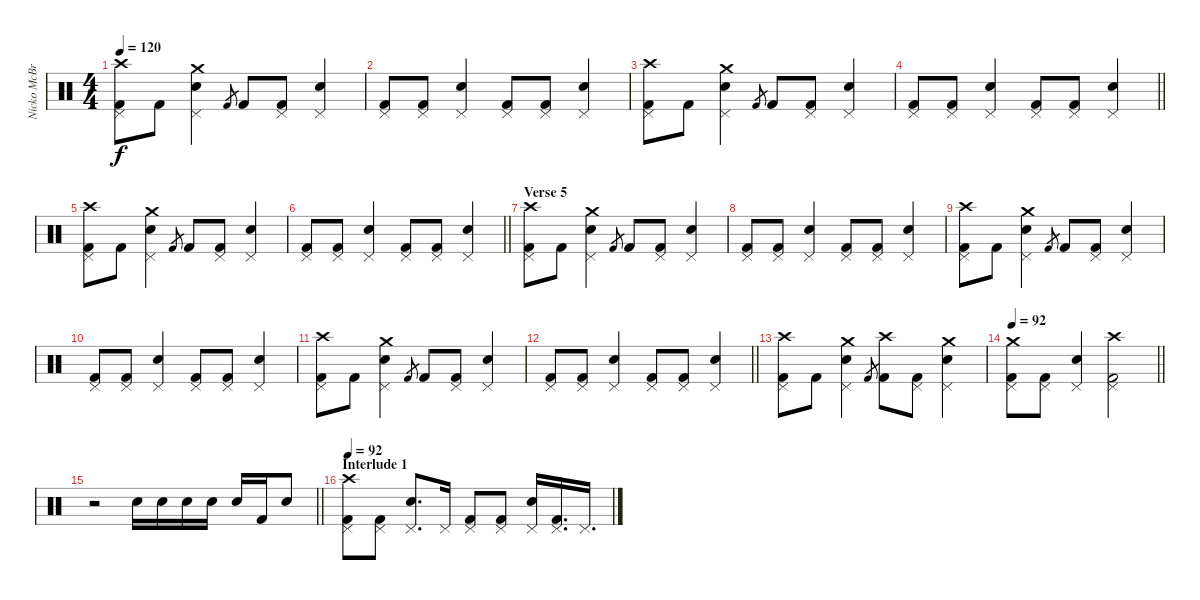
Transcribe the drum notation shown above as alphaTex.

\track ("Nicko McBrain" "Nicko McBr") {instrument percussion}
\staff {score}
\articulation defaults
\ts (4 4)
\tempo 120
\clef neutral
\ks c
("Crash high (hit)" "Pedal Hi-Hat (hit)" "Kick (hit) 2").8{dy f} "Kick (hit) 2".8 ("Pedal Hi-Hat (hit)" "Electric Snare (hit)" "Crash medium (hit)").4 "Kick (hit) 2".8{gr} "Kick (hit) 2".8 ("Pedal Hi-Hat (hit)" "Kick (hit) 2").8 ("Pedal Hi-Hat (hit)" "Electric Snare (hit)").4 |
("Pedal Hi-Hat (hit)" "Kick (hit) 2").8 ("Pedal Hi-Hat (hit)" "Kick (hit) 2").8 ("Pedal Hi-Hat (hit)" "Electric Snare (hit)").4 ("Pedal Hi-Hat (hit)" "Kick (hit) 2").8 ("Pedal Hi-Hat (hit)" "Kick (hit) 2").8 ("Pedal Hi-Hat (hit)" "Electric Snare (hit)").4 |
("Crash high (hit)" "Pedal Hi-Hat (hit)" "Kick (hit) 2").8 "Kick (hit) 2".8 ("Pedal Hi-Hat (hit)" "Electric Snare (hit)" "Crash medium (hit)").4 "Kick (hit) 2".8{gr} "Kick (hit) 2".8 ("Pedal Hi-Hat (hit)" "Kick (hit) 2").8 ("Pedal Hi-Hat (hit)" "Electric Snare (hit)").4 |
\barLineRight lightlight
("Pedal Hi-Hat (hit)" "Kick (hit) 2").8 ("Pedal Hi-Hat (hit)" "Kick (hit) 2").8 ("Pedal Hi-Hat (hit)" "Electric Snare (hit)").4 ("Pedal Hi-Hat (hit)" "Kick (hit) 2").8 ("Pedal Hi-Hat (hit)" "Kick (hit) 2").8 ("Pedal Hi-Hat (hit)" "Electric Snare (hit)").4 |
("Crash high (hit)" "Pedal Hi-Hat (hit)" "Kick (hit) 2").8 "Kick (hit) 2".8 ("Pedal Hi-Hat (hit)" "Electric Snare (hit)" "Crash medium (hit)").4 "Kick (hit) 2".8{gr} "Kick (hit) 2".8 ("Pedal Hi-Hat (hit)" "Kick (hit) 2").8 ("Pedal Hi-Hat (hit)" "Electric Snare (hit)").4 |
\barLineRight lightlight
("Pedal Hi-Hat (hit)" "Kick (hit) 2").8 ("Pedal Hi-Hat (hit)" "Kick (hit) 2").8 ("Pedal Hi-Hat (hit)" "Electric Snare (hit)").4 ("Pedal Hi-Hat (hit)" "Kick (hit) 2").8 ("Pedal Hi-Hat (hit)" "Kick (hit) 2").8 ("Pedal Hi-Hat (hit)" "Electric Snare (hit)").4 |
\section ("" "Verse 5")
("Crash high (hit)" "Pedal Hi-Hat (hit)" "Kick (hit) 2").8 "Kick (hit) 2".8 ("Pedal Hi-Hat (hit)" "Electric Snare (hit)" "Crash medium (hit)").4 "Kick (hit) 2".8{gr} "Kick (hit) 2".8 ("Pedal Hi-Hat (hit)" "Kick (hit) 2").8 ("Pedal Hi-Hat (hit)" "Electric Snare (hit)").4 |
("Pedal Hi-Hat (hit)" "Kick (hit) 2").8 ("Pedal Hi-Hat (hit)" "Kick (hit) 2").8 ("Pedal Hi-Hat (hit)" "Electric Snare (hit)").4 ("Pedal Hi-Hat (hit)" "Kick (hit) 2").8 ("Pedal Hi-Hat (hit)" "Kick (hit) 2").8 ("Pedal Hi-Hat (hit)" "Electric Snare (hit)").4 |
("Crash high (hit)" "Pedal Hi-Hat (hit)" "Kick (hit) 2").8 "Kick (hit) 2".8 ("Pedal Hi-Hat (hit)" "Electric Snare (hit)" "Crash medium (hit)").4 "Kick (hit) 2".8{gr} "Kick (hit) 2".8 ("Pedal Hi-Hat (hit)" "Kick (hit) 2").8 ("Pedal Hi-Hat (hit)" "Electric Snare (hit)").4 |
("Pedal Hi-Hat (hit)" "Kick (hit) 2").8 ("Pedal Hi-Hat (hit)" "Kick (hit) 2").8 ("Pedal Hi-Hat (hit)" "Electric Snare (hit)").4 ("Pedal Hi-Hat (hit)" "Kick (hit) 2").8 ("Pedal Hi-Hat (hit)" "Kick (hit) 2").8 ("Pedal Hi-Hat (hit)" "Electric Snare (hit)").4 |
("Crash high (hit)" "Pedal Hi-Hat (hit)" "Kick (hit) 2").8 "Kick (hit) 2".8 ("Pedal Hi-Hat (hit)" "Electric Snare (hit)" "Crash medium (hit)").4 "Kick (hit) 2".8{gr} "Kick (hit) 2".8 ("Pedal Hi-Hat (hit)" "Kick (hit) 2").8 ("Pedal Hi-Hat (hit)" "Electric Snare (hit)").4 |
\barLineRight lightlight
("Pedal Hi-Hat (hit)" "Kick (hit) 2").8 ("Pedal Hi-Hat (hit)" "Kick (hit) 2").8 ("Pedal Hi-Hat (hit)" "Electric Snare (hit)").4 ("Pedal Hi-Hat (hit)" "Kick (hit) 2").8 ("Pedal Hi-Hat (hit)" "Kick (hit) 2").8 ("Pedal Hi-Hat (hit)" "Electric Snare (hit)").4 |
("Crash high (hit)" "Pedal Hi-Hat (hit)" "Kick (hit) 2").8 "Kick (hit) 2".8 ("Pedal Hi-Hat (hit)" "Electric Snare (hit)" "Crash medium (hit)").4 "Kick (hit) 2".8{gr} ("Crash high (hit)" "Kick (hit) 2").8 ("Pedal Hi-Hat (hit)" "Kick (hit) 2").8 ("Pedal Hi-Hat (hit)" "Electric Snare (hit)" "Crash medium (hit)").4 |
\tempo 92
\barLineRight lightlight
("Pedal Hi-Hat (hit)" "Crash medium (hit)" "Kick (hit) 2").8 ("Pedal Hi-Hat (hit)" "Kick (hit) 2").8 ("Pedal Hi-Hat (hit)" "Electric Snare (hit)").4 ("Pedal Hi-Hat (hit)" "Crash high (hit)" "Kick (hit) 2").2 |
\barLineRight lightlight
r.2 "Electric Snare (hit)".16 "Electric Snare (hit)".16 "Electric Snare (hit)".16 "Electric Snare (hit)".16 "Electric Snare (hit)".16 "Kick (hit) 2".16 "Electric Snare (hit)".8 |
\section ("" "Interlude 1")
\tempo 92
("Pedal Hi-Hat (hit)" "Crash high (hit)" "Kick (hit) 2").8 ("Pedal Hi-Hat (hit)" "Kick (hit) 2").8 ("Electric Snare (hit)" "Pedal Hi-Hat (hit)").8{d} "Pedal Hi-Hat (hit)".16 ("Pedal Hi-Hat (hit)" "Kick (hit) 2").8 ("Pedal Hi-Hat (hit)" "Kick (hit) 2").8 ("Electric Snare (hit)" "Pedal Hi-Hat (hit)").16 ("Pedal Hi-Hat (hit)" "Kick (hit) 2").16{d} "Pedal Hi-Hat (hit)".16{d}
